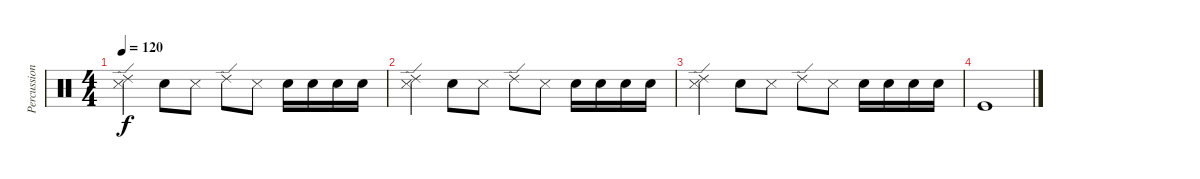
\track ("Percussions" "Percussion") {instrument percussion}
\staff {score}
\articulation defaults
\ts (4 4)
\tempo 120
\clef neutral
\ks c
("Snare (side stick) 3" "Ride (edge) 2").4{dy f} "Electric Snare (hit)".8 "Snare (side stick) 3".8 "Ride (edge) 2".8 "Snare (side stick) 3".8 "Electric Snare (hit)".16 "Electric Snare (hit)".16 "Electric Snare (hit)".16 "Electric Snare (hit)".16 |
("Snare (side stick) 3" "Ride (edge) 2").4 "Electric Snare (hit)".8 "Snare (side stick) 3".8 "Ride (edge) 2".8 "Snare (side stick) 3".8 "Electric Snare (hit)".16 "Electric Snare (hit)".16 "Electric Snare (hit)".16 "Electric Snare (hit)".16 |
("Snare (side stick) 3" "Ride (edge) 2").4 "Electric Snare (hit)".8 "Snare (side stick) 3".8 "Ride (edge) 2".8 "Snare (side stick) 3".8 "Electric Snare (hit)".16 "Electric Snare (hit)".16 "Electric Snare (hit)".16 "Electric Snare (hit)".16 |
"Kick (hit)".1
